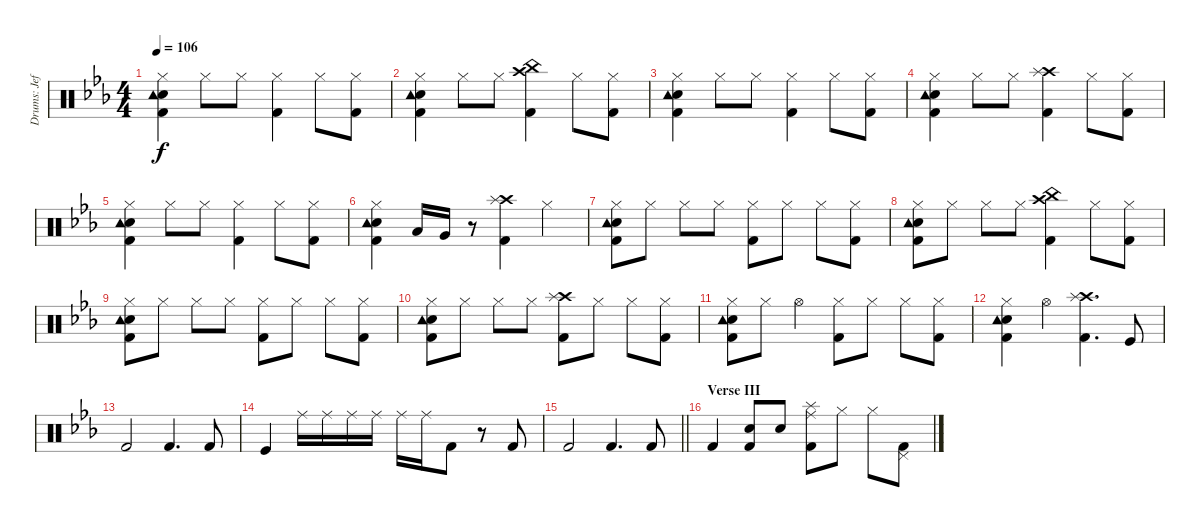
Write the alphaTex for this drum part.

\track ("Drums: Jeff" "Drums: Jef") {instrument percussion}
\staff {score}
\articulation defaults
\ts (4 4)
\tempo 106
\clef neutral
\ks eb
("Hi-Hat (closed)" "Snare (hit) 2" "Tambourine (hit)" "Kick (hit) 2").4{dy f} "Hi-Hat (closed)".8 "Hi-Hat (closed)".8 ("Hi-Hat (closed)" "Kick (hit) 2").4 "Hi-Hat (closed)".8 ("Hi-Hat (closed)" "Kick (hit) 2").8 |
("Hi-Hat (closed)" "Snare (hit) 2" "Tambourine (hit)" "Kick (hit) 2").4 "Hi-Hat (closed)".8 "Hi-Hat (closed)".8 ("Crash high (hit)" "China (hit)" "Kick (hit) 2").4 "Hi-Hat (closed)".8 ("Hi-Hat (closed)" "Kick (hit) 2").8 |
("Hi-Hat (closed)" "Snare (hit) 2" "Tambourine (hit)" "Kick (hit) 2").4 "Hi-Hat (closed)".8 "Hi-Hat (closed)".8 ("Hi-Hat (closed)" "Kick (hit) 2").4 "Hi-Hat (closed)".8 ("Hi-Hat (closed)" "Kick (hit) 2").8 |
("Hi-Hat (closed)" "Snare (hit) 2" "Tambourine (hit)" "Kick (hit) 2").4 "Hi-Hat (closed)".8 "Hi-Hat (closed)".8 ("Crash high (hit)" "Splash (hit)" "Kick (hit) 2").4 "Hi-Hat (closed)".8 ("Hi-Hat (closed)" "Kick (hit) 2").8 |
("Hi-Hat (closed)" "Snare (hit) 2" "Tambourine (hit)" "Kick (hit) 2").4 "Hi-Hat (closed)".8 "Hi-Hat (closed)".8 ("Hi-Hat (closed)" "Kick (hit) 2").4 "Hi-Hat (closed)".8 ("Hi-Hat (closed)" "Kick (hit) 2").8 |
("Hi-Hat (closed)" "Snare (hit) 2" "Tambourine (hit)" "Kick (hit) 2").4 "Low Tom (hit)".16 "Very Low Tom (hit)".16 r.8 ("Crash high (hit)" "Splash (hit)" "Kick (hit) 2").4 "Hi-Hat (closed)".4 |
("Hi-Hat (closed)" "Snare (hit) 2" "Tambourine (hit)" "Kick (hit) 2").8 "Hi-Hat (closed)".8 "Hi-Hat (closed)".8 "Hi-Hat (closed)".8 ("Hi-Hat (closed)" "Kick (hit) 2").8 "Hi-Hat (closed)".8 "Hi-Hat (closed)".8 ("Hi-Hat (closed)" "Kick (hit) 2").8 |
("Hi-Hat (closed)" "Snare (hit) 2" "Tambourine (hit)" "Kick (hit) 2").8 "Hi-Hat (closed)".8 "Hi-Hat (closed)".8 "Hi-Hat (closed)".8 ("Crash high (hit)" "China (hit)" "Kick (hit) 2").4 "Hi-Hat (closed)".8 ("Hi-Hat (closed)" "Kick (hit) 2").8 |
("Hi-Hat (closed)" "Snare (hit) 2" "Tambourine (hit)" "Kick (hit) 2").8 "Hi-Hat (closed)".8 "Hi-Hat (closed)".8 "Hi-Hat (closed)".8 ("Hi-Hat (closed)" "Kick (hit) 2").8 "Hi-Hat (closed)".8 "Hi-Hat (closed)".8 ("Hi-Hat (closed)" "Kick (hit) 2").8 |
("Hi-Hat (closed)" "Snare (hit) 2" "Tambourine (hit)" "Kick (hit) 2").8 "Hi-Hat (closed)".8 "Hi-Hat (closed)".8 "Hi-Hat (closed)".8 ("Crash high (hit)" "Splash (hit)" "Kick (hit) 2").8 "Hi-Hat (closed)".8 "Hi-Hat (closed)".8 ("Hi-Hat (closed)" "Kick (hit) 2").8 |
("Hi-Hat (closed)" "Snare (hit) 2" "Tambourine (hit)" "Kick (hit) 2").8 "Hi-Hat (closed)".8 "Hi-Hat (open)".4 ("Hi-Hat (closed)" "Kick (hit) 2").8 "Hi-Hat (closed)".8 "Hi-Hat (closed)".8 ("Hi-Hat (closed)" "Kick (hit) 2").8 |
("Hi-Hat (closed)" "Snare (hit) 2" "Tambourine (hit)" "Kick (hit) 2").4 "Hi-Hat (open)".4 ("Crash high (hit)" "Splash (hit)" "Kick (hit) 2").4{d} "Kick (hit)".8 |
"Kick (hit) 2".2 "Kick (hit) 2".4{d} "Kick (hit) 2".8 |
"Kick (hit)".4 "Ride (middle)".16 "Ride (middle)".16 "Ride (middle)".16 "Ride (middle)".16 "Ride (middle)".16 "Ride (middle)".16 "Kick (hit) 2".8 r.8 "Kick (hit) 2".8 |
\barLineRight lightlight "Kick (hit) 2".2 "Kick (hit) 2".4{d} "Kick (hit) 2".8
|
\section ("" "Verse III")
"Kick (hit) 2".4 ("Snare (hit) 2" "Kick (hit) 2").8 "Snare (hit) 2".8 ("Ride (middle)" "Splash (hit)" "Kick (hit) 2").8 "Hi-Hat (closed)".8 "Hi-Hat (closed)".8 ("Pedal Hi-Hat (hit)" "Kick (hit) 2").8
